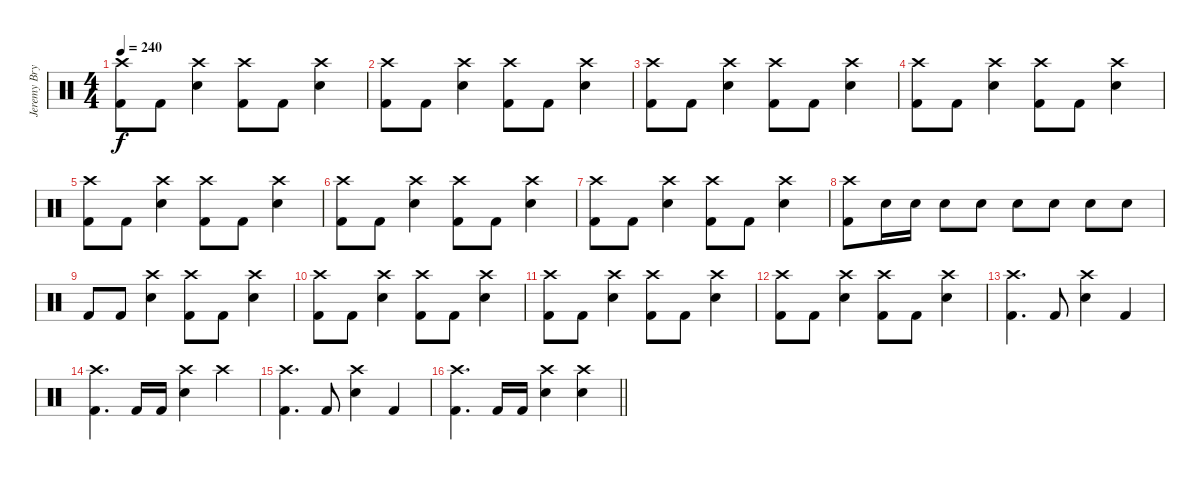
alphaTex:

\track ("Jeremy Bryan - Drums" "Jeremy Bry") {instrument percussion}
\staff {score}
\articulation defaults
\ts (4 4)
\tempo 240
\clef neutral
\ks c
("Crash high (hit)" "Kick (hit) 2").8{dy f} "Kick (hit) 2".8 ("Crash high (hit)" "Electric Snare (hit)").4 ("Crash high (hit)" "Kick (hit) 2").8 "Kick (hit) 2".8 ("Crash high (hit)" "Electric Snare (hit)").4 |
("Crash high (hit)" "Kick (hit) 2").8 "Kick (hit) 2".8 ("Crash high (hit)" "Electric Snare (hit)").4 ("Crash high (hit)" "Kick (hit) 2").8 "Kick (hit) 2".8 ("Crash high (hit)" "Electric Snare (hit)").4 |
("Crash high (hit)" "Kick (hit) 2").8 "Kick (hit) 2".8 ("Crash high (hit)" "Electric Snare (hit)").4 ("Crash high (hit)" "Kick (hit) 2").8 "Kick (hit) 2".8 ("Crash high (hit)" "Electric Snare (hit)").4 |
("Crash high (hit)" "Kick (hit) 2").8 "Kick (hit) 2".8 ("Crash high (hit)" "Electric Snare (hit)").4 ("Crash high (hit)" "Kick (hit) 2").8 "Kick (hit) 2".8 ("Crash high (hit)" "Electric Snare (hit)").4 |
("Crash high (hit)" "Kick (hit) 2").8 "Kick (hit) 2".8 ("Crash high (hit)" "Electric Snare (hit)").4 ("Crash high (hit)" "Kick (hit) 2").8 "Kick (hit) 2".8 ("Crash high (hit)" "Electric Snare (hit)").4 |
("Crash high (hit)" "Kick (hit) 2").8 "Kick (hit) 2".8 ("Crash high (hit)" "Electric Snare (hit)").4 ("Crash high (hit)" "Kick (hit) 2").8 "Kick (hit) 2".8 ("Crash high (hit)" "Electric Snare (hit)").4 |
("Crash high (hit)" "Kick (hit) 2").8 "Kick (hit) 2".8 ("Crash high (hit)" "Electric Snare (hit)").4 ("Crash high (hit)" "Kick (hit) 2").8 "Kick (hit) 2".8 ("Crash high (hit)" "Electric Snare (hit)").4 |
("Crash high (hit)" "Kick (hit) 2").8 "Electric Snare (hit)".16 "Electric Snare (hit)".16 "Electric Snare (hit)".8 "Electric Snare (hit)".8 "Electric Snare (hit)".8 "Electric Snare (hit)".8 "Electric Snare (hit)".8 "Electric Snare (hit)".8 |
"Kick (hit) 2".8 "Kick (hit) 2".8 ("Crash high (hit)" "Electric Snare (hit)").4 ("Crash high (hit)" "Kick (hit) 2").8 "Kick (hit) 2".8 ("Crash high (hit)" "Electric Snare (hit)").4 |
("Crash high (hit)" "Kick (hit) 2").8 "Kick (hit) 2".8 ("Crash high (hit)" "Electric Snare (hit)").4 ("Crash high (hit)" "Kick (hit) 2").8 "Kick (hit) 2".8 ("Crash high (hit)" "Electric Snare (hit)").4 |
("Crash high (hit)" "Kick (hit) 2").8 "Kick (hit) 2".8 ("Crash high (hit)" "Electric Snare (hit)").4 ("Crash high (hit)" "Kick (hit) 2").8 "Kick (hit) 2".8 ("Crash high (hit)" "Electric Snare (hit)").4 |
("Crash high (hit)" "Kick (hit) 2").8 "Kick (hit) 2".8 ("Crash high (hit)" "Electric Snare (hit)").4 ("Crash high (hit)" "Kick (hit) 2").8 "Kick (hit) 2".8 ("Crash high (hit)" "Electric Snare (hit)").4 |
("Crash high (hit)" "Kick (hit) 2").4{d} "Kick (hit) 2".8 ("Crash high (hit)" "Electric Snare (hit)").4 "Kick (hit) 2".4 |
("Crash high (hit)" "Kick (hit) 2").4{d} "Kick (hit) 2".16 "Kick (hit) 2".16 ("Crash high (hit)" "Electric Snare (hit)").4 "Crash high (hit)".4 |
("Crash high (hit)" "Kick (hit) 2").4{d} "Kick (hit) 2".8 ("Crash high (hit)" "Electric Snare (hit)").4 "Kick (hit) 2".4 |
\barLineRight lightlight
("Crash high (hit)" "Kick (hit) 2").4{d} "Kick (hit) 2".16 "Kick (hit) 2".16 ("Crash high (hit)" "Electric Snare (hit)").4 ("Crash high (hit)" "Electric Snare (hit)").4
